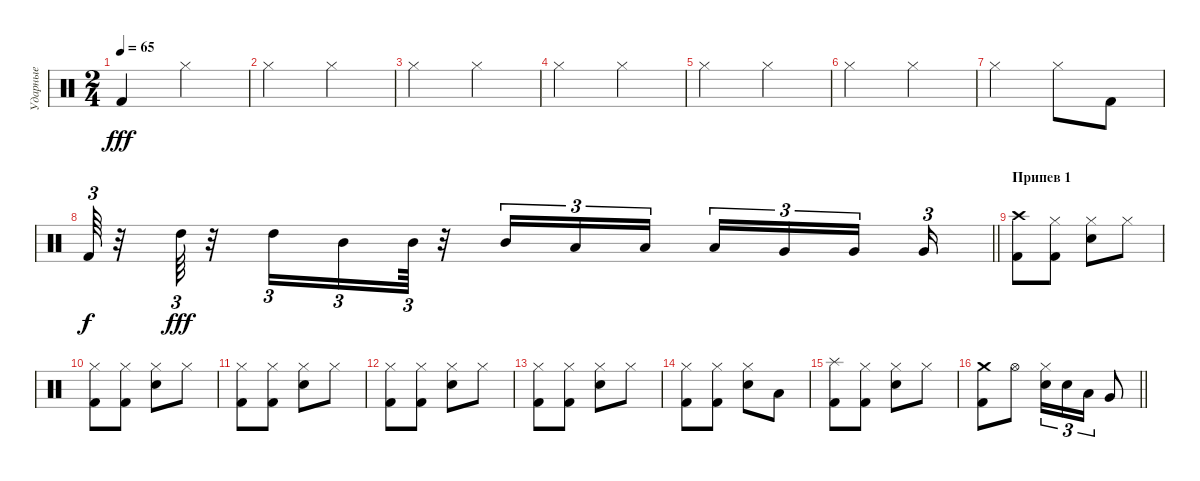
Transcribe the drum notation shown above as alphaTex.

\track ("Ударные" "Ударные") {instrument percussion}
\staff
\articulation defaults
\ts (2 4)
\tempo 65
\clef neutral
\ks c "Kick (hit) 2".4{dy fff} "Hi-Hat (closed)".4
|
"Hi-Hat (closed)".4 "Hi-Hat (closed)".4 |
"Hi-Hat (closed)".4 "Hi-Hat (closed)".4 |
"Hi-Hat (closed)".4 "Hi-Hat (closed)".4 |
"Hi-Hat (closed)".4 "Hi-Hat (closed)".4 |
"Hi-Hat (closed)".4 "Hi-Hat (closed)".4 |
"Hi-Hat (closed)".4 "Hi-Hat (closed)".8 "Kick (hit) 2".8 |
\barLineRight lightlight "Kick (hit) 2".64{tu (3 2) dy f}
r.32 "High Tom (hit)".64{tu (3 2) dy fff} r.32 "High Tom (hit)".16{tu (3 2)} "Mid Tom (hit)".16{tu (3 2)} "Mid Tom (hit)".64{tu (3 2)} r.32 "Mid Tom (hit)".16{tu (3 2)} "Low Tom (hit)".16{tu (3 2)} "Low Tom (hit)".16{tu (3 2) beam splitsecondary} "Low Tom (hit)".16{tu (3 2)} "Very Low Tom (hit)".16{tu (3 2)} "Very Low Tom (hit)".16{tu (3 2) beam splitsecondary} "Very Low Tom (hit)".16{tu (3 2)} |
\section ("" "Припев 1")
("Kick (hit) 2" "Crash high (hit)").8 ("Kick (hit) 2" "Hi-Hat (closed)").8 ("Snare (hit) 2" "Hi-Hat (closed)").8 "Hi-Hat (closed)".8 |
("Kick (hit) 2" "Hi-Hat (closed)").8 ("Kick (hit) 2" "Hi-Hat (closed)").8 ("Snare (hit) 2" "Hi-Hat (closed)").8 "Hi-Hat (closed)".8 |
("Kick (hit) 2" "Hi-Hat (closed)").8 ("Kick (hit) 2" "Hi-Hat (closed)").8 ("Snare (hit) 2" "Hi-Hat (closed)").8 "Hi-Hat (closed)".8 |
("Kick (hit) 2" "Hi-Hat (closed)").8 ("Kick (hit) 2" "Hi-Hat (closed)").8 ("Snare (hit) 2" "Hi-Hat (closed)").8 "Hi-Hat (closed)".8 |
("Kick (hit) 2" "Hi-Hat (closed)").8 ("Kick (hit) 2" "Hi-Hat (closed)").8 ("Snare (hit) 2" "Hi-Hat (closed)").8 "Hi-Hat (closed)".8 |
("Kick (hit) 2" "Hi-Hat (closed)").8 ("Kick (hit) 2" "Hi-Hat (closed)").8 ("Snare (hit) 2" "Hi-Hat (closed)").8 "Low Tom (hit)".8 |
("Kick (hit) 2" "Splash (hit)").8 ("Kick (hit) 2" "Hi-Hat (closed)").8 ("Snare (hit) 2" "Hi-Hat (closed)").8 "Hi-Hat (closed)".8 |
\barLineRight lightlight
("Kick (hit) 2" "Crash medium (hit)").8 "Hi-Hat (open)".8 ("Snare (hit) 2" "Hi-Hat (closed)").16{tu (3 2)} "Snare (hit) 2".16{tu (3 2)} "Low Tom (hit)".16{tu (3 2)} "Very Low Tom (hit)".8
